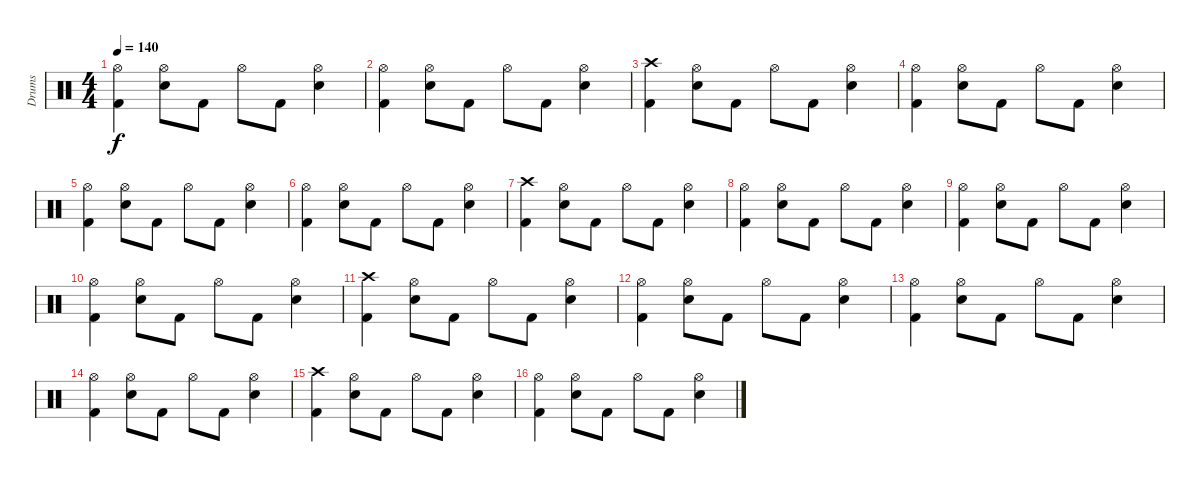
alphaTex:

\track ("Drums" "Drums") {instrument percussion}
\staff {score}
\articulation defaults
\ts (4 4)
\tempo 140
\clef neutral
\ks c
("Hi-Hat (open)" "Kick (hit) 2").4{dy f} ("Hi-Hat (open)" "Snare (hit) 2").8 "Kick (hit) 2".8 "Hi-Hat (open)".8 "Kick (hit) 2".8 ("Hi-Hat (open)" "Snare (hit) 2").4 |
("Hi-Hat (open)" "Kick (hit) 2").4 ("Hi-Hat (open)" "Snare (hit) 2").8 "Kick (hit) 2".8 "Hi-Hat (open)".8 "Kick (hit) 2".8 ("Hi-Hat (open)" "Snare (hit) 2").4 |
("Crash high (hit)" "Kick (hit) 2").4 ("Hi-Hat (open)" "Snare (hit) 2").8 "Kick (hit) 2".8 "Hi-Hat (open)".8 "Kick (hit) 2".8 ("Hi-Hat (open)" "Snare (hit) 2").4 |
("Hi-Hat (open)" "Kick (hit) 2").4 ("Hi-Hat (open)" "Snare (hit) 2").8 "Kick (hit) 2".8 "Hi-Hat (open)".8 "Kick (hit) 2".8 ("Hi-Hat (open)" "Snare (hit) 2").4 |
("Hi-Hat (open)" "Kick (hit) 2").4 ("Hi-Hat (open)" "Snare (hit) 2").8 "Kick (hit) 2".8 "Hi-Hat (open)".8 "Kick (hit) 2".8 ("Hi-Hat (open)" "Snare (hit) 2").4 |
("Hi-Hat (open)" "Kick (hit) 2").4 ("Hi-Hat (open)" "Snare (hit) 2").8 "Kick (hit) 2".8 "Hi-Hat (open)".8 "Kick (hit) 2".8 ("Hi-Hat (open)" "Snare (hit) 2").4 |
("Crash high (hit)" "Kick (hit) 2").4 ("Hi-Hat (open)" "Snare (hit) 2").8 "Kick (hit) 2".8 "Hi-Hat (open)".8 "Kick (hit) 2".8 ("Hi-Hat (open)" "Snare (hit) 2").4 |
("Hi-Hat (open)" "Kick (hit) 2").4 ("Hi-Hat (open)" "Snare (hit) 2").8 "Kick (hit) 2".8 "Hi-Hat (open)".8 "Kick (hit) 2".8 ("Hi-Hat (open)" "Snare (hit) 2").4 |
("Hi-Hat (open)" "Kick (hit) 2").4 ("Hi-Hat (open)" "Snare (hit) 2").8 "Kick (hit) 2".8 "Hi-Hat (open)".8 "Kick (hit) 2".8 ("Hi-Hat (open)" "Snare (hit) 2").4 |
("Hi-Hat (open)" "Kick (hit) 2").4 ("Hi-Hat (open)" "Snare (hit) 2").8 "Kick (hit) 2".8 "Hi-Hat (open)".8 "Kick (hit) 2".8 ("Hi-Hat (open)" "Snare (hit) 2").4 |
("Crash high (hit)" "Kick (hit) 2").4 ("Hi-Hat (open)" "Snare (hit) 2").8 "Kick (hit) 2".8 "Hi-Hat (open)".8 "Kick (hit) 2".8 ("Hi-Hat (open)" "Snare (hit) 2").4 |
("Hi-Hat (open)" "Kick (hit) 2").4 ("Hi-Hat (open)" "Snare (hit) 2").8 "Kick (hit) 2".8 "Hi-Hat (open)".8 "Kick (hit) 2".8 ("Hi-Hat (open)" "Snare (hit) 2").4 |
("Hi-Hat (open)" "Kick (hit) 2").4 ("Hi-Hat (open)" "Snare (hit) 2").8 "Kick (hit) 2".8 "Hi-Hat (open)".8 "Kick (hit) 2".8 ("Hi-Hat (open)" "Snare (hit) 2").4 |
("Hi-Hat (open)" "Kick (hit) 2").4 ("Hi-Hat (open)" "Snare (hit) 2").8 "Kick (hit) 2".8 "Hi-Hat (open)".8 "Kick (hit) 2".8 ("Hi-Hat (open)" "Snare (hit) 2").4 |
("Crash high (hit)" "Kick (hit) 2").4 ("Hi-Hat (open)" "Snare (hit) 2").8 "Kick (hit) 2".8 "Hi-Hat (open)".8 "Kick (hit) 2".8 ("Hi-Hat (open)" "Snare (hit) 2").4 |
("Hi-Hat (open)" "Kick (hit) 2").4 ("Hi-Hat (open)" "Snare (hit) 2").8 "Kick (hit) 2".8 "Hi-Hat (open)".8 "Kick (hit) 2".8 ("Hi-Hat (open)" "Snare (hit) 2").4
